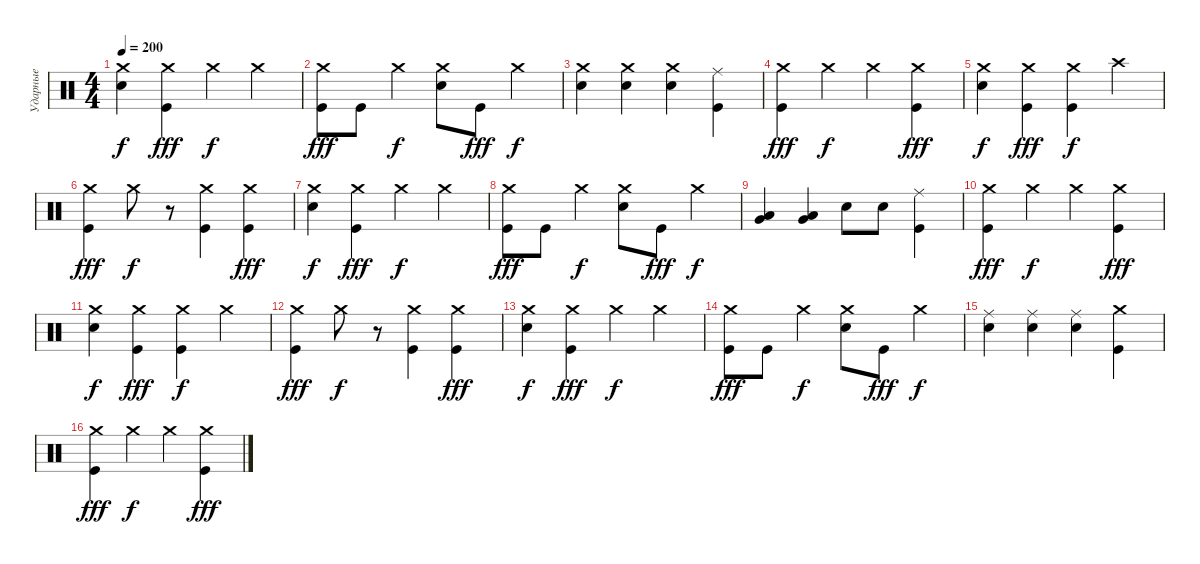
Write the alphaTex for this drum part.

\track ("Ударные" "Ударные") {instrument percussion}
\staff {score}
\articulation defaults
\ts (4 4)
\tempo 200
\clef neutral
\ks c
("Crash medium (hit)" "Electric Snare (hit)").4{dy f} ("Crash medium (hit)" "Kick (hit)").4{dy fff} "Crash medium (hit)".4{dy f} "Crash medium (hit)".4 |
("Crash medium (hit)" "Kick (hit)").8{dy fff} "Kick (hit)".8 "Crash medium (hit)".4{dy f} ("Crash medium (hit)" "Electric Snare (hit)").8 "Kick (hit)".8{dy fff} "Crash medium (hit)".4{dy f} |
("Crash medium (hit)" "Electric Snare (hit)").4 ("Crash medium (hit)" "Electric Snare (hit)").4 ("Crash medium (hit)" "Electric Snare (hit)").4 ("Ride (middle)" "Kick (hit)").4 |
("Crash medium (hit)" "Kick (hit)").4{dy fff volume 13} "Crash medium (hit)".4{dy f} "Crash medium (hit)".4 ("Crash medium (hit)" "Kick (hit)").4{dy fff} |
("Crash medium (hit)" "Electric Snare (hit)").4{dy f} ("Crash medium (hit)" "Kick (hit)").4{dy fff} ("Crash medium (hit)" "Kick (hit)").4{dy f} "Crash high (hit)".4 |
("Crash medium (hit)" "Kick (hit)").4{dy fff} "Crash medium (hit)".8{dy f} r.8 ("Crash medium (hit)" "Kick (hit)").4 ("Crash medium (hit)" "Kick (hit)").4{dy fff} |
("Crash medium (hit)" "Electric Snare (hit)").4{dy f} ("Crash medium (hit)" "Kick (hit)").4{dy fff} "Crash medium (hit)".4{dy f} "Crash medium (hit)".4 |
("Crash medium (hit)" "Kick (hit)").8{dy fff} "Kick (hit)".8 "Crash medium (hit)".4{dy f} ("Crash medium (hit)" "Electric Snare (hit)").8 "Kick (hit)".8{dy fff} "Crash medium (hit)".4{dy f} |
("Very Low Tom (hit)" "Low Tom (hit)").4 ("Very Low Tom (hit)" "Low Tom (hit)").4 "Electric Snare (hit)".8 "Electric Snare (hit)".8 ("Ride (middle)" "Kick (hit)").4 |
("Crash medium (hit)" "Kick (hit)").4{dy fff volume 13} "Crash medium (hit)".4{dy f} "Crash medium (hit)".4 ("Crash medium (hit)" "Kick (hit)").4{dy fff} |
("Crash medium (hit)" "Electric Snare (hit)").4{dy f} ("Crash medium (hit)" "Kick (hit)").4{dy fff} ("Crash medium (hit)" "Kick (hit)").4{dy f} "Crash medium (hit)".4 |
("Crash medium (hit)" "Kick (hit)").4{dy fff} "Crash medium (hit)".8{dy f} r.8 ("Crash medium (hit)" "Kick (hit)").4 ("Crash medium (hit)" "Kick (hit)").4{dy fff} |
("Crash medium (hit)" "Electric Snare (hit)").4{dy f} ("Crash medium (hit)" "Kick (hit)").4{dy fff} "Crash medium (hit)".4{dy f} "Crash medium (hit)".4 |
("Crash medium (hit)" "Kick (hit)").8{dy fff} "Kick (hit)".8 "Crash medium (hit)".4{dy f} ("Crash medium (hit)" "Electric Snare (hit)").8 "Kick (hit)".8{dy fff} "Crash medium (hit)".4{dy f} |
("Ride (middle)" "Electric Snare (hit)").4 ("Ride (middle)" "Electric Snare (hit)").4 ("Ride (middle)" "Electric Snare (hit)").4 ("Crash medium (hit)" "Kick (hit)").4 |
("Crash medium (hit)" "Kick (hit)").4{dy fff volume 13} "Crash medium (hit)".4{dy f} "Crash medium (hit)".4 ("Crash medium (hit)" "Kick (hit)").4{dy fff}
